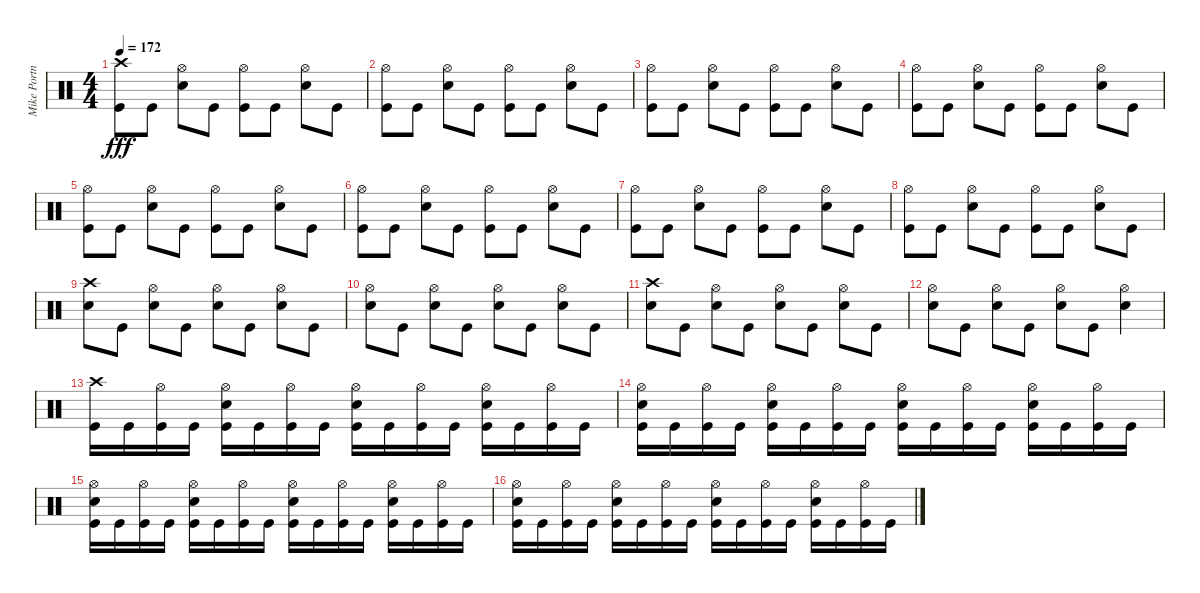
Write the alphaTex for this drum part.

\track ("Mike Portnoy" "Mike Portn") {instrument percussion}
\staff {score}
\articulation defaults
\ts (4 4)
\tempo 172
\clef neutral
\ks c
("Crash high (hit)" "Kick (hit)").8{dy fff} "Kick (hit)".8 ("Hi-Hat (open)" "Snare (hit) 2").8 "Kick (hit)".8 ("Hi-Hat (open)" "Kick (hit)").8 "Kick (hit)".8 ("Hi-Hat (open)" "Snare (hit) 2").8 "Kick (hit)".8 |
("Hi-Hat (open)" "Kick (hit)").8 "Kick (hit)".8 ("Hi-Hat (open)" "Snare (hit) 2").8 "Kick (hit)".8 ("Hi-Hat (open)" "Kick (hit)").8 "Kick (hit)".8 ("Hi-Hat (open)" "Snare (hit) 2").8 "Kick (hit)".8 |
("Hi-Hat (open)" "Kick (hit)").8 "Kick (hit)".8 ("Hi-Hat (open)" "Snare (hit) 2").8 "Kick (hit)".8 ("Hi-Hat (open)" "Kick (hit)").8 "Kick (hit)".8 ("Hi-Hat (open)" "Snare (hit) 2").8 "Kick (hit)".8 |
("Hi-Hat (open)" "Kick (hit)").8 "Kick (hit)".8 ("Hi-Hat (open)" "Snare (hit) 2").8 "Kick (hit)".8 ("Hi-Hat (open)" "Kick (hit)").8 "Kick (hit)".8 ("Hi-Hat (open)" "Snare (hit) 2").8 "Kick (hit)".8 |
("Hi-Hat (open)" "Kick (hit)").8 "Kick (hit)".8 ("Hi-Hat (open)" "Snare (hit) 2").8 "Kick (hit)".8 ("Hi-Hat (open)" "Kick (hit)").8 "Kick (hit)".8 ("Hi-Hat (open)" "Snare (hit) 2").8 "Kick (hit)".8 |
("Hi-Hat (open)" "Kick (hit)").8 "Kick (hit)".8 ("Hi-Hat (open)" "Snare (hit) 2").8 "Kick (hit)".8 ("Hi-Hat (open)" "Kick (hit)").8 "Kick (hit)".8 ("Hi-Hat (open)" "Snare (hit) 2").8 "Kick (hit)".8 |
("Hi-Hat (open)" "Kick (hit)").8 "Kick (hit)".8 ("Hi-Hat (open)" "Snare (hit) 2").8 "Kick (hit)".8 ("Hi-Hat (open)" "Kick (hit)").8 "Kick (hit)".8 ("Hi-Hat (open)" "Snare (hit) 2").8 "Kick (hit)".8 |
("Hi-Hat (open)" "Kick (hit)").8 "Kick (hit)".8 ("Hi-Hat (open)" "Snare (hit) 2").8 "Kick (hit)".8 ("Hi-Hat (open)" "Kick (hit)").8 "Kick (hit)".8 ("Hi-Hat (open)" "Snare (hit) 2").8 "Kick (hit)".8 |
("Crash high (hit)" "Snare (hit) 2").8 "Kick (hit)".8 ("Hi-Hat (open)" "Snare (hit) 2").8 "Kick (hit)".8 ("Hi-Hat (open)" "Snare (hit) 2").8 "Kick (hit)".8 ("Hi-Hat (open)" "Snare (hit) 2").8 "Kick (hit)".8 |
("Hi-Hat (open)" "Snare (hit) 2").8 "Kick (hit)".8 ("Hi-Hat (open)" "Snare (hit) 2").8 "Kick (hit)".8 ("Hi-Hat (open)" "Snare (hit) 2").8 "Kick (hit)".8 ("Hi-Hat (open)" "Snare (hit) 2").8 "Kick (hit)".8 |
("Crash high (hit)" "Snare (hit) 2").8 "Kick (hit)".8 ("Hi-Hat (open)" "Snare (hit) 2").8 "Kick (hit)".8 ("Hi-Hat (open)" "Snare (hit) 2").8 "Kick (hit)".8 ("Hi-Hat (open)" "Snare (hit) 2").8 "Kick (hit)".8 |
("Hi-Hat (open)" "Snare (hit) 2").8 "Kick (hit)".8 ("Hi-Hat (open)" "Snare (hit) 2").8 "Kick (hit)".8 ("Hi-Hat (open)" "Snare (hit) 2").8 "Kick (hit)".8 ("Hi-Hat (open)" "Snare (hit) 2").4 |
("Crash high (hit)" "Kick (hit)").16 "Kick (hit)".16 ("Hi-Hat (open)" "Kick (hit)").16 "Kick (hit)".16 ("Hi-Hat (open)" "Snare (hit) 2" "Kick (hit)").16 "Kick (hit)".16 ("Hi-Hat (open)" "Kick (hit)").16 "Kick (hit)".16 ("Hi-Hat (open)" "Snare (hit) 2" "Kick (hit)").16 "Kick (hit)".16 ("Hi-Hat (open)" "Kick (hit)").16 "Kick (hit)".16 ("Hi-Hat (open)" "Snare (hit) 2" "Kick (hit)").16 "Kick (hit)".16 ("Hi-Hat (open)" "Kick (hit)").16 "Kick (hit)".16 |
("Hi-Hat (open)" "Snare (hit) 2" "Kick (hit)").16 "Kick (hit)".16 ("Hi-Hat (open)" "Kick (hit)").16 "Kick (hit)".16 ("Hi-Hat (open)" "Snare (hit) 2" "Kick (hit)").16 "Kick (hit)".16 ("Hi-Hat (open)" "Kick (hit)").16 "Kick (hit)".16 ("Hi-Hat (open)" "Snare (hit) 2" "Kick (hit)").16 "Kick (hit)".16 ("Hi-Hat (open)" "Kick (hit)").16 "Kick (hit)".16 ("Hi-Hat (open)" "Snare (hit) 2" "Kick (hit)").16 "Kick (hit)".16 ("Hi-Hat (open)" "Kick (hit)").16 "Kick (hit)".16 |
("Hi-Hat (open)" "Snare (hit) 2" "Kick (hit)").16 "Kick (hit)".16 ("Hi-Hat (open)" "Kick (hit)").16 "Kick (hit)".16 ("Hi-Hat (open)" "Snare (hit) 2" "Kick (hit)").16 "Kick (hit)".16 ("Hi-Hat (open)" "Kick (hit)").16 "Kick (hit)".16 ("Hi-Hat (open)" "Snare (hit) 2" "Kick (hit)").16 "Kick (hit)".16 ("Hi-Hat (open)" "Kick (hit)").16 "Kick (hit)".16 ("Hi-Hat (open)" "Snare (hit) 2" "Kick (hit)").16 "Kick (hit)".16 ("Hi-Hat (open)" "Kick (hit)").16 "Kick (hit)".16 |
("Hi-Hat (open)" "Snare (hit) 2" "Kick (hit)").16 "Kick (hit)".16 ("Hi-Hat (open)" "Kick (hit)").16 "Kick (hit)".16 ("Hi-Hat (open)" "Snare (hit) 2" "Kick (hit)").16 "Kick (hit)".16 ("Hi-Hat (open)" "Kick (hit)").16 "Kick (hit)".16 ("Hi-Hat (open)" "Snare (hit) 2" "Kick (hit)").16 "Kick (hit)".16 ("Hi-Hat (open)" "Kick (hit)").16 "Kick (hit)".16 ("Hi-Hat (open)" "Snare (hit) 2" "Kick (hit)").16 "Kick (hit)".16 ("Hi-Hat (open)" "Kick (hit)").16 "Kick (hit)".16
